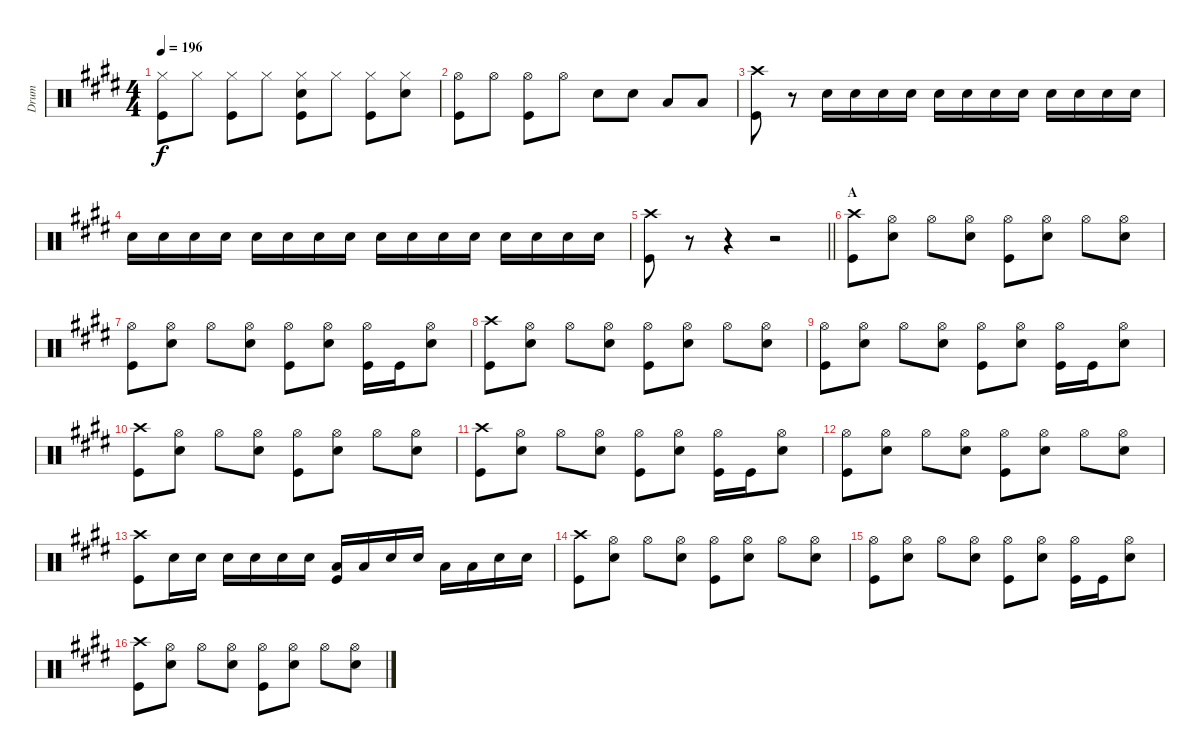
\track ("Drum" "Drum") {instrument percussion}
\staff {score}
\articulation defaults
\ts (4 4)
\tempo 196
\clef neutral
\ks e
("Hi-Hat (closed)" "Kick (hit)").8{dy f} "Hi-Hat (closed)".8 ("Hi-Hat (closed)" "Kick (hit)").8 "Hi-Hat (closed)".8 ("Hi-Hat (closed)" "Snare (hit) 2" "Kick (hit)").8 "Hi-Hat (closed)".8 ("Hi-Hat (closed)" "Kick (hit)").8 ("Hi-Hat (closed)" "Snare (hit) 2").8 |
("Hi-Hat (open)" "Kick (hit)").8 "Hi-Hat (open)".8 ("Hi-Hat (open)" "Kick (hit)").8 "Hi-Hat (open)".8 "Snare (hit) 2".8 "Snare (hit) 2".8 "Low Tom (hit)".8 "Low Tom (hit)".8 |
("Crash high (hit)" "Kick (hit)").8 r.8 "Snare (hit) 2".16 "Snare (hit) 2".16 "Snare (hit) 2".16 "Snare (hit) 2".16 "Snare (hit) 2".16 "Snare (hit) 2".16 "Snare (hit) 2".16 "Snare (hit) 2".16 "Snare (hit) 2".16 "Snare (hit) 2".16 "Snare (hit) 2".16 "Snare (hit) 2".16 |
"Snare (hit) 2".16 "Snare (hit) 2".16 "Snare (hit) 2".16 "Snare (hit) 2".16 "Snare (hit) 2".16 "Snare (hit) 2".16 "Snare (hit) 2".16 "Snare (hit) 2".16 "Snare (hit) 2".16 "Snare (hit) 2".16 "Snare (hit) 2".16 "Snare (hit) 2".16 "Snare (hit) 2".16 "Snare (hit) 2".16 "Snare (hit) 2".16 "Snare (hit) 2".16 |
\barLineRight lightlight
("Crash high (hit)" "Kick (hit)").8 r.8 r.4 r.2 |
\section ("" "A")
("Crash high (hit)" "Kick (hit)").8 ("Hi-Hat (open)" "Snare (hit) 2").8 "Hi-Hat (open)".8 ("Hi-Hat (open)" "Snare (hit) 2").8 ("Hi-Hat (open)" "Kick (hit)").8 ("Hi-Hat (open)" "Snare (hit) 2").8 "Hi-Hat (open)".8 ("Hi-Hat (open)" "Snare (hit) 2").8 |
("Hi-Hat (open)" "Kick (hit)").8 ("Hi-Hat (open)" "Snare (hit) 2").8 "Hi-Hat (open)".8 ("Hi-Hat (open)" "Snare (hit) 2").8 ("Hi-Hat (open)" "Kick (hit)").8 ("Hi-Hat (open)" "Snare (hit) 2").8 ("Hi-Hat (open)" "Kick (hit)").16 "Kick (hit)".16 ("Hi-Hat (open)" "Snare (hit) 2").8 |
("Crash high (hit)" "Kick (hit)").8 ("Hi-Hat (open)" "Snare (hit) 2").8 "Hi-Hat (open)".8 ("Hi-Hat (open)" "Snare (hit) 2").8 ("Hi-Hat (open)" "Kick (hit)").8 ("Hi-Hat (open)" "Snare (hit) 2").8 "Hi-Hat (open)".8 ("Hi-Hat (open)" "Snare (hit) 2").8 |
("Hi-Hat (open)" "Kick (hit)").8 ("Hi-Hat (open)" "Snare (hit) 2").8 "Hi-Hat (open)".8 ("Hi-Hat (open)" "Snare (hit) 2").8 ("Hi-Hat (open)" "Kick (hit)").8 ("Hi-Hat (open)" "Snare (hit) 2").8 ("Hi-Hat (open)" "Kick (hit)").16 "Kick (hit)".16 ("Hi-Hat (open)" "Snare (hit) 2").8 |
("Crash high (hit)" "Kick (hit)").8 ("Hi-Hat (open)" "Snare (hit) 2").8 "Hi-Hat (open)".8 ("Hi-Hat (open)" "Snare (hit) 2").8 ("Hi-Hat (open)" "Kick (hit)").8 ("Hi-Hat (open)" "Snare (hit) 2").8 "Hi-Hat (open)".8 ("Hi-Hat (open)" "Snare (hit) 2").8 |
("Crash high (hit)" "Kick (hit)").8 ("Hi-Hat (open)" "Snare (hit) 2").8 "Hi-Hat (open)".8 ("Hi-Hat (open)" "Snare (hit) 2").8 ("Hi-Hat (open)" "Kick (hit)").8 ("Hi-Hat (open)" "Snare (hit) 2").8 ("Hi-Hat (open)" "Kick (hit)").16 "Kick (hit)".16 ("Hi-Hat (open)" "Snare (hit) 2").8 |
("Hi-Hat (open)" "Kick (hit)").8 ("Hi-Hat (open)" "Snare (hit) 2").8 "Hi-Hat (open)".8 ("Hi-Hat (open)" "Snare (hit) 2").8 ("Hi-Hat (open)" "Kick (hit)").8 ("Hi-Hat (open)" "Snare (hit) 2").8 "Hi-Hat (open)".8 ("Hi-Hat (open)" "Snare (hit) 2").8 |
("Crash high (hit)" "Kick (hit)").8 "Snare (hit) 2".16 "Snare (hit) 2".16 "Snare (hit) 2".16 "Snare (hit) 2".16 "Snare (hit) 2".16 "Snare (hit) 2".16 ("Low Tom (hit)" "Kick (hit)").16 "Low Tom (hit)".16 "Snare (hit) 2".16 "Snare (hit) 2".16 "Low Tom (hit)".16 "Low Tom (hit)".16 "Snare (hit) 2".16 "Snare (hit) 2".16 |
("Crash high (hit)" "Kick (hit)").8 ("Hi-Hat (open)" "Snare (hit) 2").8 "Hi-Hat (open)".8 ("Hi-Hat (open)" "Snare (hit) 2").8 ("Hi-Hat (open)" "Kick (hit)").8 ("Hi-Hat (open)" "Snare (hit) 2").8 "Hi-Hat (open)".8 ("Hi-Hat (open)" "Snare (hit) 2").8 |
("Hi-Hat (open)" "Kick (hit)").8 ("Hi-Hat (open)" "Snare (hit) 2").8 "Hi-Hat (open)".8 ("Hi-Hat (open)" "Snare (hit) 2").8 ("Hi-Hat (open)" "Kick (hit)").8 ("Hi-Hat (open)" "Snare (hit) 2").8 ("Hi-Hat (open)" "Kick (hit)").16 "Kick (hit)".16 ("Hi-Hat (open)" "Snare (hit) 2").8 |
("Crash high (hit)" "Kick (hit)").8 ("Hi-Hat (open)" "Snare (hit) 2").8 "Hi-Hat (open)".8 ("Hi-Hat (open)" "Snare (hit) 2").8 ("Hi-Hat (open)" "Kick (hit)").8 ("Hi-Hat (open)" "Snare (hit) 2").8 "Hi-Hat (open)".8 ("Hi-Hat (open)" "Snare (hit) 2").8
